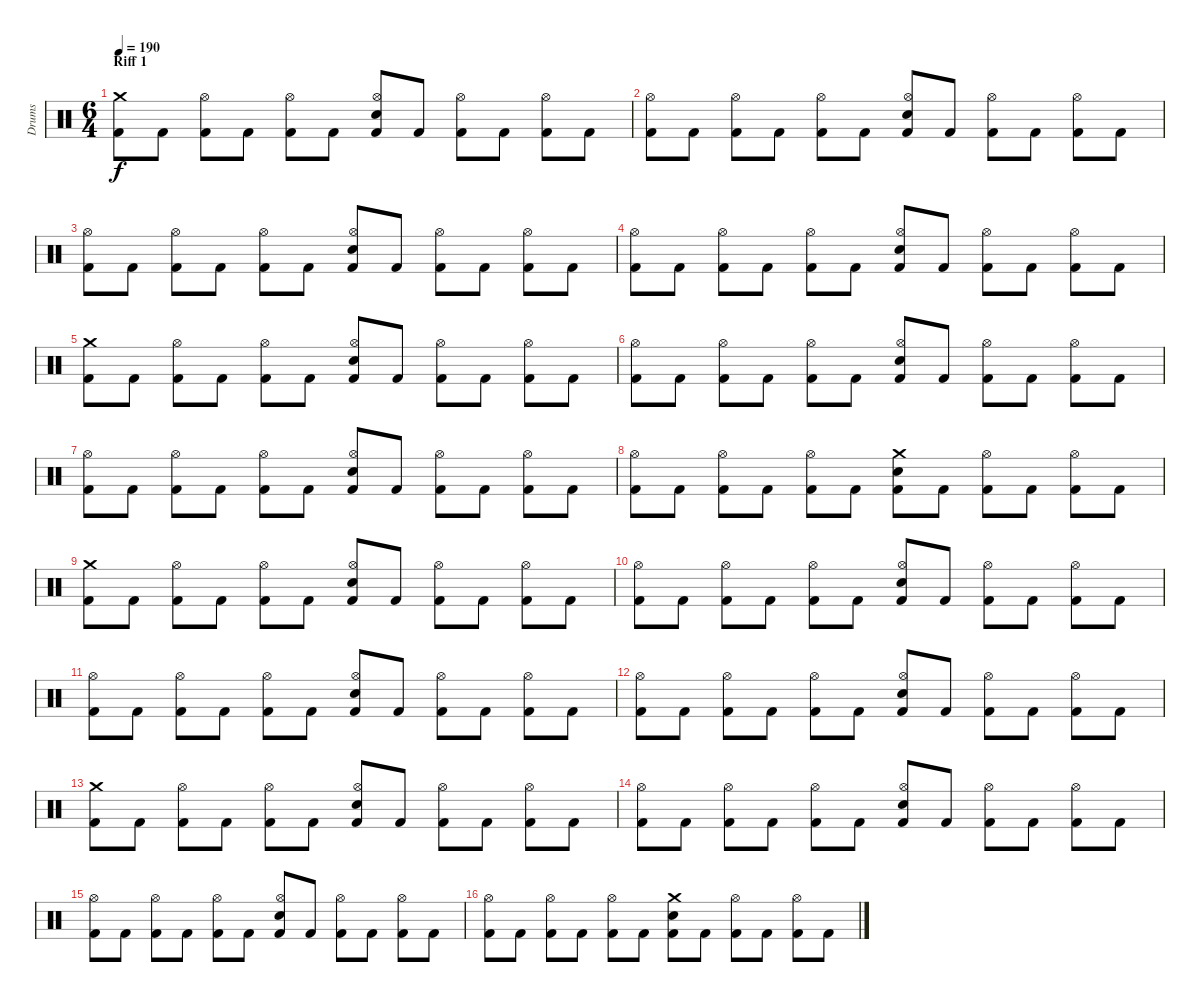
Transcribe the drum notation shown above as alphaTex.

\track ("Drums" "Drums") {instrument percussion}
\staff {score}
\articulation defaults
\ts (6 4)
\section ("" "Riff 1")
\tempo 190
\clef neutral
\ks c
("Crash medium (hit)" "Kick (hit) 2").8{dy f volume 13} "Kick (hit) 2".8 ("Hi-Hat (open)" "Kick (hit) 2").8 "Kick (hit) 2".8 ("Hi-Hat (open)" "Kick (hit) 2").8 "Kick (hit) 2".8 ("Hi-Hat (open)" "Electric Snare (hit)" "Kick (hit) 2").8 "Kick (hit) 2".8 ("Hi-Hat (open)" "Kick (hit) 2").8 "Kick (hit) 2".8 ("Hi-Hat (open)" "Kick (hit) 2").8 "Kick (hit) 2".8 |
("Hi-Hat (open)" "Kick (hit) 2").8 "Kick (hit) 2".8 ("Hi-Hat (open)" "Kick (hit) 2").8 "Kick (hit) 2".8 ("Hi-Hat (open)" "Kick (hit) 2").8 "Kick (hit) 2".8 ("Hi-Hat (open)" "Electric Snare (hit)" "Kick (hit) 2").8 "Kick (hit) 2".8 ("Hi-Hat (open)" "Kick (hit) 2").8 "Kick (hit) 2".8 ("Hi-Hat (open)" "Kick (hit) 2").8 "Kick (hit) 2".8 |
("Hi-Hat (open)" "Kick (hit) 2").8 "Kick (hit) 2".8 ("Hi-Hat (open)" "Kick (hit) 2").8 "Kick (hit) 2".8 ("Hi-Hat (open)" "Kick (hit) 2").8 "Kick (hit) 2".8 ("Hi-Hat (open)" "Electric Snare (hit)" "Kick (hit) 2").8 "Kick (hit) 2".8 ("Hi-Hat (open)" "Kick (hit) 2").8 "Kick (hit) 2".8 ("Hi-Hat (open)" "Kick (hit) 2").8 "Kick (hit) 2".8 |
("Hi-Hat (open)" "Kick (hit) 2").8 "Kick (hit) 2".8 ("Hi-Hat (open)" "Kick (hit) 2").8 "Kick (hit) 2".8 ("Hi-Hat (open)" "Kick (hit) 2").8 "Kick (hit) 2".8 ("Hi-Hat (open)" "Electric Snare (hit)" "Kick (hit) 2").8 "Kick (hit) 2".8 ("Hi-Hat (open)" "Kick (hit) 2").8 "Kick (hit) 2".8 ("Hi-Hat (open)" "Kick (hit) 2").8 "Kick (hit) 2".8 |
("Crash medium (hit)" "Kick (hit) 2").8 "Kick (hit) 2".8 ("Hi-Hat (open)" "Kick (hit) 2").8 "Kick (hit) 2".8 ("Hi-Hat (open)" "Kick (hit) 2").8 "Kick (hit) 2".8 ("Hi-Hat (open)" "Electric Snare (hit)" "Kick (hit) 2").8 "Kick (hit) 2".8 ("Hi-Hat (open)" "Kick (hit) 2").8 "Kick (hit) 2".8 ("Hi-Hat (open)" "Kick (hit) 2").8 "Kick (hit) 2".8 |
("Hi-Hat (open)" "Kick (hit) 2").8 "Kick (hit) 2".8 ("Hi-Hat (open)" "Kick (hit) 2").8 "Kick (hit) 2".8 ("Hi-Hat (open)" "Kick (hit) 2").8 "Kick (hit) 2".8 ("Hi-Hat (open)" "Electric Snare (hit)" "Kick (hit) 2").8 "Kick (hit) 2".8 ("Hi-Hat (open)" "Kick (hit) 2").8 "Kick (hit) 2".8 ("Hi-Hat (open)" "Kick (hit) 2").8 "Kick (hit) 2".8 |
("Hi-Hat (open)" "Kick (hit) 2").8 "Kick (hit) 2".8 ("Hi-Hat (open)" "Kick (hit) 2").8 "Kick (hit) 2".8 ("Hi-Hat (open)" "Kick (hit) 2").8 "Kick (hit) 2".8 ("Hi-Hat (open)" "Electric Snare (hit)" "Kick (hit) 2").8 "Kick (hit) 2".8 ("Hi-Hat (open)" "Kick (hit) 2").8 "Kick (hit) 2".8 ("Hi-Hat (open)" "Kick (hit) 2").8 "Kick (hit) 2".8 |
("Hi-Hat (open)" "Kick (hit) 2").8 "Kick (hit) 2".8 ("Hi-Hat (open)" "Kick (hit) 2").8 "Kick (hit) 2".8 ("Hi-Hat (open)" "Kick (hit) 2").8 "Kick (hit) 2".8 ("Crash medium (hit)" "Electric Snare (hit)" "Kick (hit) 2").8 "Kick (hit) 2".8 ("Hi-Hat (open)" "Kick (hit) 2").8 "Kick (hit) 2".8 ("Hi-Hat (open)" "Kick (hit) 2").8 "Kick (hit) 2".8 |
("Crash medium (hit)" "Kick (hit) 2").8{volume 13} "Kick (hit) 2".8 ("Hi-Hat (open)" "Kick (hit) 2").8 "Kick (hit) 2".8 ("Hi-Hat (open)" "Kick (hit) 2").8 "Kick (hit) 2".8 ("Hi-Hat (open)" "Electric Snare (hit)" "Kick (hit) 2").8 "Kick (hit) 2".8 ("Hi-Hat (open)" "Kick (hit) 2").8 "Kick (hit) 2".8 ("Hi-Hat (open)" "Kick (hit) 2").8 "Kick (hit) 2".8 |
("Hi-Hat (open)" "Kick (hit) 2").8 "Kick (hit) 2".8 ("Hi-Hat (open)" "Kick (hit) 2").8 "Kick (hit) 2".8 ("Hi-Hat (open)" "Kick (hit) 2").8 "Kick (hit) 2".8 ("Hi-Hat (open)" "Electric Snare (hit)" "Kick (hit) 2").8 "Kick (hit) 2".8 ("Hi-Hat (open)" "Kick (hit) 2").8 "Kick (hit) 2".8 ("Hi-Hat (open)" "Kick (hit) 2").8 "Kick (hit) 2".8 |
("Hi-Hat (open)" "Kick (hit) 2").8 "Kick (hit) 2".8 ("Hi-Hat (open)" "Kick (hit) 2").8 "Kick (hit) 2".8 ("Hi-Hat (open)" "Kick (hit) 2").8 "Kick (hit) 2".8 ("Hi-Hat (open)" "Electric Snare (hit)" "Kick (hit) 2").8 "Kick (hit) 2".8 ("Hi-Hat (open)" "Kick (hit) 2").8 "Kick (hit) 2".8 ("Hi-Hat (open)" "Kick (hit) 2").8 "Kick (hit) 2".8 |
("Hi-Hat (open)" "Kick (hit) 2").8 "Kick (hit) 2".8 ("Hi-Hat (open)" "Kick (hit) 2").8 "Kick (hit) 2".8 ("Hi-Hat (open)" "Kick (hit) 2").8 "Kick (hit) 2".8 ("Hi-Hat (open)" "Electric Snare (hit)" "Kick (hit) 2").8 "Kick (hit) 2".8 ("Hi-Hat (open)" "Kick (hit) 2").8 "Kick (hit) 2".8 ("Hi-Hat (open)" "Kick (hit) 2").8 "Kick (hit) 2".8 |
("Crash medium (hit)" "Kick (hit) 2").8 "Kick (hit) 2".8 ("Hi-Hat (open)" "Kick (hit) 2").8 "Kick (hit) 2".8 ("Hi-Hat (open)" "Kick (hit) 2").8 "Kick (hit) 2".8 ("Hi-Hat (open)" "Electric Snare (hit)" "Kick (hit) 2").8 "Kick (hit) 2".8 ("Hi-Hat (open)" "Kick (hit) 2").8 "Kick (hit) 2".8 ("Hi-Hat (open)" "Kick (hit) 2").8 "Kick (hit) 2".8 |
("Hi-Hat (open)" "Kick (hit) 2").8 "Kick (hit) 2".8 ("Hi-Hat (open)" "Kick (hit) 2").8 "Kick (hit) 2".8 ("Hi-Hat (open)" "Kick (hit) 2").8 "Kick (hit) 2".8 ("Hi-Hat (open)" "Electric Snare (hit)" "Kick (hit) 2").8 "Kick (hit) 2".8 ("Hi-Hat (open)" "Kick (hit) 2").8 "Kick (hit) 2".8 ("Hi-Hat (open)" "Kick (hit) 2").8 "Kick (hit) 2".8 |
("Hi-Hat (open)" "Kick (hit) 2").8 "Kick (hit) 2".8 ("Hi-Hat (open)" "Kick (hit) 2").8 "Kick (hit) 2".8 ("Hi-Hat (open)" "Kick (hit) 2").8 "Kick (hit) 2".8 ("Hi-Hat (open)" "Electric Snare (hit)" "Kick (hit) 2").8 "Kick (hit) 2".8 ("Hi-Hat (open)" "Kick (hit) 2").8 "Kick (hit) 2".8 ("Hi-Hat (open)" "Kick (hit) 2").8 "Kick (hit) 2".8 |
("Hi-Hat (open)" "Kick (hit) 2").8 "Kick (hit) 2".8 ("Hi-Hat (open)" "Kick (hit) 2").8 "Kick (hit) 2".8 ("Hi-Hat (open)" "Kick (hit) 2").8 "Kick (hit) 2".8 ("Crash medium (hit)" "Electric Snare (hit)" "Kick (hit) 2").8 "Kick (hit) 2".8 ("Hi-Hat (open)" "Kick (hit) 2").8 "Kick (hit) 2".8 ("Hi-Hat (open)" "Kick (hit) 2").8 "Kick (hit) 2".8
